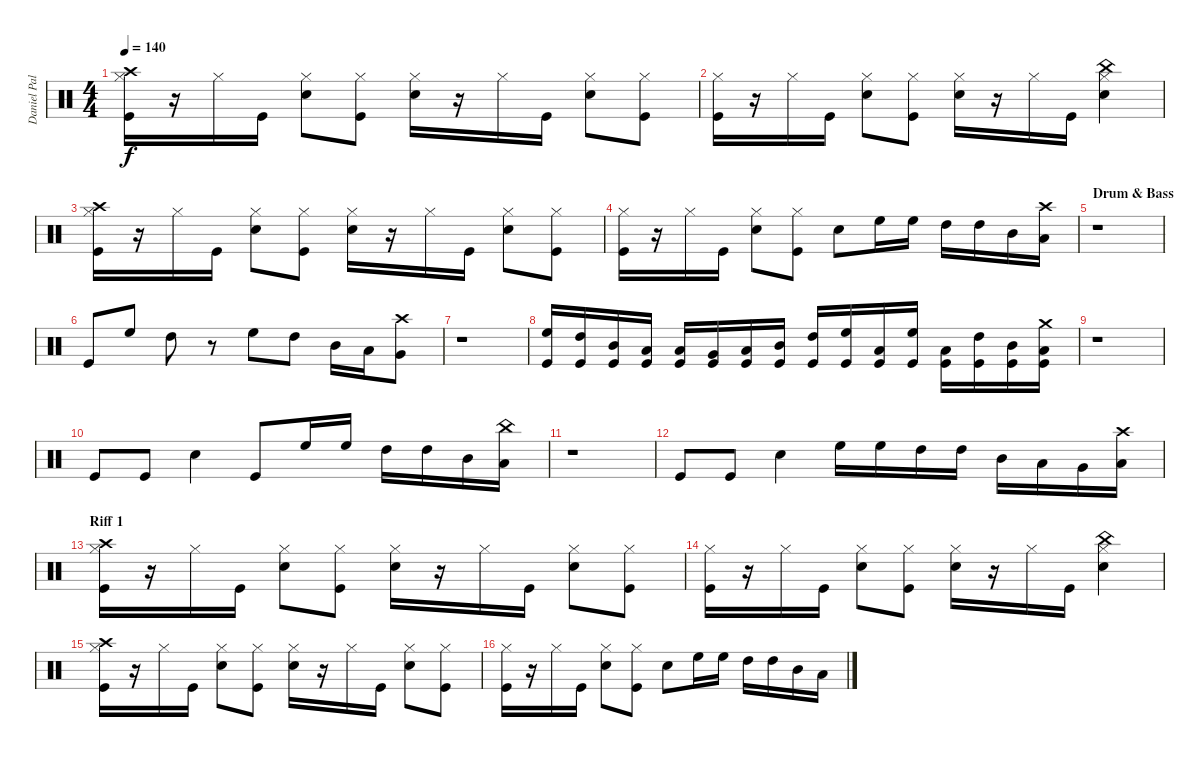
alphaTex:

\track ("Daniel Pal" "Daniel Pal") {instrument percussion}
\staff {score}
\articulation defaults
\ts (4 4)
\tempo 140
\clef neutral
\ks c
("Crash high (hit)" "Hi-Hat (closed)" "Kick (hit)").16{dy f} r.16 "Hi-Hat (closed)".16 "Kick (hit)".16 ("Hi-Hat (closed)" "Electric Snare (hit)").8 ("Hi-Hat (closed)" "Kick (hit)").8 ("Hi-Hat (closed)" "Electric Snare (hit)").16 r.16 "Hi-Hat (closed)".16 "Kick (hit)".16 ("Hi-Hat (closed)" "Electric Snare (hit)").8 ("Hi-Hat (closed)" "Kick (hit)").8 |
("Hi-Hat (closed)" "Kick (hit)").16 r.16 "Hi-Hat (closed)".16 "Kick (hit)".16 ("Hi-Hat (closed)" "Electric Snare (hit)").8 ("Hi-Hat (closed)" "Kick (hit)").8 ("Hi-Hat (closed)" "Electric Snare (hit)").16 r.16 "Hi-Hat (closed)".16 "Kick (hit)".16 ("China (hit)" "Hi-Hat (closed)" "Electric Snare (hit)").4 |
("Crash high (hit)" "Hi-Hat (closed)" "Kick (hit)").16 r.16 "Hi-Hat (closed)".16 "Kick (hit)".16 ("Hi-Hat (closed)" "Electric Snare (hit)").8 ("Hi-Hat (closed)" "Kick (hit)").8 ("Hi-Hat (closed)" "Electric Snare (hit)").16 r.16 "Hi-Hat (closed)".16 "Kick (hit)".16 ("Hi-Hat (closed)" "Electric Snare (hit)").8 ("Hi-Hat (closed)" "Kick (hit)").8 |
("Hi-Hat (closed)" "Kick (hit)").16 r.16 "Hi-Hat (closed)".16 "Kick (hit)".16 ("Hi-Hat (closed)" "Electric Snare (hit)").8 ("Hi-Hat (closed)" "Kick (hit)").8 "Electric Snare (hit)".8 "High Floor Tom (hit)".16 "High Floor Tom (hit)".16 "High Tom (hit)".16 "High Tom (hit)".16 "Mid Tom (hit)".16 ("Crash high (hit)" "Low Tom (hit)").16 |
\section ("" "Drum & Bass")
r.1 |
"Kick (hit)".8 "High Floor Tom (hit)".8 "High Tom (hit)".8 r.8 "High Floor Tom (hit)".8 "High Tom (hit)".8 "Mid Tom (hit)".16 "Low Tom (hit)".16 ("Crash high (hit)" "Very Low Tom (hit)").8 |
r.1 |
("High Floor Tom (hit)" "Kick (hit)").16 ("High Tom (hit)" "Kick (hit)").16 ("Mid Tom (hit)" "Kick (hit)").16 ("Low Tom (hit)" "Kick (hit)").16 ("Low Floor Tom (hit)" "Kick (hit)").16 ("Very Low Tom (hit)" "Kick (hit)").16 ("Low Tom (hit)" "Kick (hit)").16 ("Mid Tom (hit)" "Kick (hit)").16 ("High Tom (hit)" "Kick (hit)").16 ("High Floor Tom (hit)" "Kick (hit)").16 ("Low Tom (hit)" "Kick (hit)").16 ("High Floor Tom (hit)" "Kick (hit)").16 ("Low Tom (hit)" "Kick (hit)").16 ("High Tom (hit)" "Kick (hit)").16 ("Mid Tom (hit)" "Kick (hit)").16 ("Crash medium (hit)" "Low Tom (hit)" "Kick (hit)").16 |
r.1 |
"Kick (hit)".8 "Kick (hit)".8 "Electric Snare (hit)".4 "Kick (hit)".8 "High Floor Tom (hit)".16 "High Floor Tom (hit)".16 "High Tom (hit)".16 "High Tom (hit)".16 "Mid Tom (hit)".16 ("China (hit)" "Low Tom (hit)").16 |
r.1 |
"Kick (hit)".8 "Kick (hit)".8 "Electric Snare (hit)".4 "High Floor Tom (hit)".16 "High Floor Tom (hit)".16 "High Tom (hit)".16 "High Tom (hit)".16 "Mid Tom (hit)".16 "Low Tom (hit)".16 "Very Low Tom (hit)".16 ("Crash high (hit)" "Low Floor Tom (hit)").16 |
\section ("" "Riff 1")
("Crash high (hit)" "Hi-Hat (closed)" "Kick (hit)").16 r.16 "Hi-Hat (closed)".16 "Kick (hit)".16 ("Hi-Hat (closed)" "Electric Snare (hit)").8 ("Hi-Hat (closed)" "Kick (hit)").8 ("Hi-Hat (closed)" "Electric Snare (hit)").16 r.16 "Hi-Hat (closed)".16 "Kick (hit)".16 ("Hi-Hat (closed)" "Electric Snare (hit)").8 ("Hi-Hat (closed)" "Kick (hit)").8 |
("Hi-Hat (closed)" "Kick (hit)").16 r.16 "Hi-Hat (closed)".16 "Kick (hit)".16 ("Hi-Hat (closed)" "Electric Snare (hit)").8 ("Hi-Hat (closed)" "Kick (hit)").8 ("Hi-Hat (closed)" "Electric Snare (hit)").16 r.16 "Hi-Hat (closed)".16 "Kick (hit)".16 ("China (hit)" "Hi-Hat (closed)" "Electric Snare (hit)").4 |
("Crash high (hit)" "Hi-Hat (closed)" "Kick (hit)").16 r.16 "Hi-Hat (closed)".16 "Kick (hit)".16 ("Hi-Hat (closed)" "Electric Snare (hit)").8 ("Hi-Hat (closed)" "Kick (hit)").8 ("Hi-Hat (closed)" "Electric Snare (hit)").16 r.16 "Hi-Hat (closed)".16 "Kick (hit)".16 ("Hi-Hat (closed)" "Electric Snare (hit)").8 ("Hi-Hat (closed)" "Kick (hit)").8 |
("Hi-Hat (closed)" "Kick (hit)").16 r.16 "Hi-Hat (closed)".16 "Kick (hit)".16 ("Hi-Hat (closed)" "Electric Snare (hit)").8 ("Hi-Hat (closed)" "Kick (hit)").8 "Electric Snare (hit)".8 "High Floor Tom (hit)".16 "High Floor Tom (hit)".16 "High Tom (hit)".16 "High Tom (hit)".16 "Mid Tom (hit)".16 "Low Tom (hit)".16
